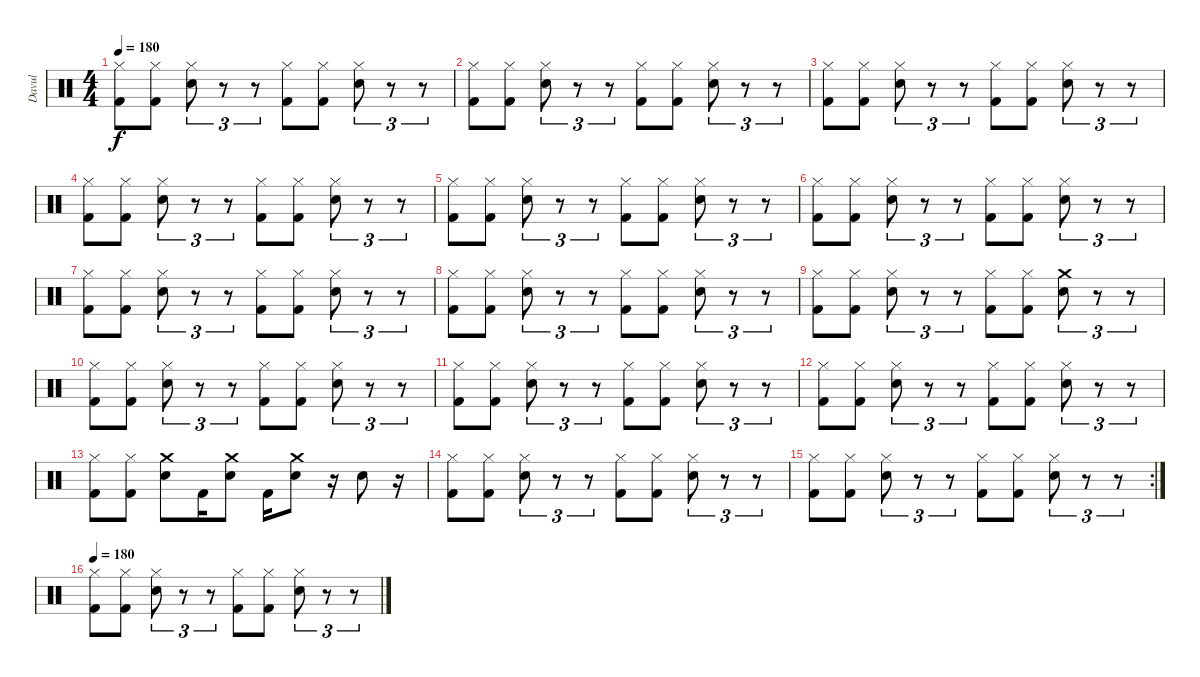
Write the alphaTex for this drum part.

\track ("Davul" "Davul") {instrument percussion}
\staff {score}
\articulation defaults
\ts (4 4)
\tempo 180
\clef neutral
\ks c
("Hi-Hat (closed)" "Kick (hit) 2").8{dy f} ("Hi-Hat (closed)" "Kick (hit) 2").8 ("Hi-Hat (closed)" "Snare (hit) 2").8{tu (3 2)} r.8{tu (3 2)} r.8{tu (3 2)} ("Hi-Hat (closed)" "Kick (hit) 2").8 ("Hi-Hat (closed)" "Kick (hit) 2").8 ("Hi-Hat (closed)" "Snare (hit) 2").8{tu (3 2)} r.8{tu (3 2)} r.8{tu (3 2)} |
("Hi-Hat (closed)" "Kick (hit) 2").8 ("Hi-Hat (closed)" "Kick (hit) 2").8 ("Hi-Hat (closed)" "Snare (hit) 2").8{tu (3 2)} r.8{tu (3 2)} r.8{tu (3 2)} ("Hi-Hat (closed)" "Kick (hit) 2").8 ("Hi-Hat (closed)" "Kick (hit) 2").8 ("Hi-Hat (closed)" "Snare (hit) 2").8{tu (3 2)} r.8{tu (3 2)} r.8{tu (3 2)} |
("Hi-Hat (closed)" "Kick (hit) 2").8 ("Hi-Hat (closed)" "Kick (hit) 2").8 ("Hi-Hat (closed)" "Snare (hit) 2").8{tu (3 2)} r.8{tu (3 2)} r.8{tu (3 2)} ("Hi-Hat (closed)" "Kick (hit) 2").8 ("Hi-Hat (closed)" "Kick (hit) 2").8 ("Hi-Hat (closed)" "Snare (hit) 2").8{tu (3 2)} r.8{tu (3 2)} r.8{tu (3 2)} |
("Hi-Hat (closed)" "Kick (hit) 2").8 ("Hi-Hat (closed)" "Kick (hit) 2").8 ("Hi-Hat (closed)" "Snare (hit) 2").8{tu (3 2)} r.8{tu (3 2)} r.8{tu (3 2)} ("Hi-Hat (closed)" "Kick (hit) 2").8 ("Hi-Hat (closed)" "Kick (hit) 2").8 ("Hi-Hat (closed)" "Snare (hit) 2").8{tu (3 2)} r.8{tu (3 2)} r.8{tu (3 2)} |
("Hi-Hat (closed)" "Kick (hit) 2").8 ("Hi-Hat (closed)" "Kick (hit) 2").8 ("Hi-Hat (closed)" "Snare (hit) 2").8{tu (3 2)} r.8{tu (3 2)} r.8{tu (3 2)} ("Hi-Hat (closed)" "Kick (hit) 2").8 ("Hi-Hat (closed)" "Kick (hit) 2").8 ("Hi-Hat (closed)" "Snare (hit) 2").8{tu (3 2)} r.8{tu (3 2)} r.8{tu (3 2)} |
("Hi-Hat (closed)" "Kick (hit) 2").8 ("Hi-Hat (closed)" "Kick (hit) 2").8 ("Hi-Hat (closed)" "Snare (hit) 2").8{tu (3 2)} r.8{tu (3 2)} r.8{tu (3 2)} ("Hi-Hat (closed)" "Kick (hit) 2").8 ("Hi-Hat (closed)" "Kick (hit) 2").8 ("Hi-Hat (closed)" "Snare (hit) 2").8{tu (3 2)} r.8{tu (3 2)} r.8{tu (3 2)} |
("Hi-Hat (closed)" "Kick (hit) 2").8 ("Hi-Hat (closed)" "Kick (hit) 2").8 ("Hi-Hat (closed)" "Snare (hit) 2").8{tu (3 2)} r.8{tu (3 2)} r.8{tu (3 2)} ("Hi-Hat (closed)" "Kick (hit) 2").8 ("Hi-Hat (closed)" "Kick (hit) 2").8 ("Hi-Hat (closed)" "Snare (hit) 2").8{tu (3 2)} r.8{tu (3 2)} r.8{tu (3 2)} |
("Hi-Hat (closed)" "Kick (hit) 2").8 ("Hi-Hat (closed)" "Kick (hit) 2").8 ("Hi-Hat (closed)" "Snare (hit) 2").8{tu (3 2)} r.8{tu (3 2)} r.8{tu (3 2)} ("Hi-Hat (closed)" "Kick (hit) 2").8 ("Hi-Hat (closed)" "Kick (hit) 2").8 ("Hi-Hat (closed)" "Snare (hit) 2").8{tu (3 2)} r.8{tu (3 2)} r.8{tu (3 2)} |
("Hi-Hat (closed)" "Kick (hit) 2").8 ("Hi-Hat (closed)" "Kick (hit) 2").8 ("Hi-Hat (closed)" "Snare (hit) 2").8{tu (3 2)} r.8{tu (3 2)} r.8{tu (3 2)} ("Hi-Hat (closed)" "Kick (hit) 2").8 ("Hi-Hat (closed)" "Kick (hit) 2").8 ("Crash medium (hit)" "Snare (hit) 2").8{tu (3 2)} r.8{tu (3 2)} r.8{tu (3 2)} |
("Hi-Hat (closed)" "Kick (hit) 2").8 ("Hi-Hat (closed)" "Kick (hit) 2").8 ("Hi-Hat (closed)" "Snare (hit) 2").8{tu (3 2)} r.8{tu (3 2)} r.8{tu (3 2)} ("Hi-Hat (closed)" "Kick (hit) 2").8 ("Hi-Hat (closed)" "Kick (hit) 2").8 ("Hi-Hat (closed)" "Snare (hit) 2").8{tu (3 2)} r.8{tu (3 2)} r.8{tu (3 2)} |
("Hi-Hat (closed)" "Kick (hit) 2").8 ("Hi-Hat (closed)" "Kick (hit) 2").8 ("Hi-Hat (closed)" "Snare (hit) 2").8{tu (3 2)} r.8{tu (3 2)} r.8{tu (3 2)} ("Hi-Hat (closed)" "Kick (hit) 2").8 ("Hi-Hat (closed)" "Kick (hit) 2").8 ("Hi-Hat (closed)" "Snare (hit) 2").8{tu (3 2)} r.8{tu (3 2)} r.8{tu (3 2)} |
("Hi-Hat (closed)" "Kick (hit) 2").8 ("Hi-Hat (closed)" "Kick (hit) 2").8 ("Hi-Hat (closed)" "Snare (hit) 2").8{tu (3 2)} r.8{tu (3 2)} r.8{tu (3 2)} ("Hi-Hat (closed)" "Kick (hit) 2").8 ("Hi-Hat (closed)" "Kick (hit) 2").8 ("Hi-Hat (closed)" "Snare (hit) 2").8{tu (3 2)} r.8{tu (3 2)} r.8{tu (3 2)} |
("Hi-Hat (closed)" "Kick (hit) 2").8 ("Hi-Hat (closed)" "Kick (hit) 2").8 ("Crash medium (hit)" "Snare (hit) 2").8 "Kick (hit) 2".16 ("Crash medium (hit)" "Snare (hit) 2").8 "Kick (hit) 2".16 ("Crash medium (hit)" "Snare (hit) 2").8 r.16 "Snare (hit) 2".8 r.16 |
("Hi-Hat (closed)" "Kick (hit) 2").8 ("Hi-Hat (closed)" "Kick (hit) 2").8 ("Hi-Hat (closed)" "Snare (hit) 2").8{tu (3 2)} r.8{tu (3 2)} r.8{tu (3 2)} ("Hi-Hat (closed)" "Kick (hit) 2").8 ("Hi-Hat (closed)" "Kick (hit) 2").8 ("Hi-Hat (closed)" "Snare (hit) 2").8{tu (3 2)} r.8{tu (3 2)} r.8{tu (3 2)} |
\rc 2
("Hi-Hat (closed)" "Kick (hit) 2").8 ("Hi-Hat (closed)" "Kick (hit) 2").8 ("Hi-Hat (closed)" "Snare (hit) 2").8{tu (3 2)} r.8{tu (3 2)} r.8{tu (3 2)} ("Hi-Hat (closed)" "Kick (hit) 2").8 ("Hi-Hat (closed)" "Kick (hit) 2").8 ("Hi-Hat (closed)" "Snare (hit) 2").8{tu (3 2)} r.8{tu (3 2)} r.8{tu (3 2)} |
\tempo 180
("Hi-Hat (closed)" "Kick (hit) 2").8 ("Hi-Hat (closed)" "Kick (hit) 2").8 ("Hi-Hat (closed)" "Snare (hit) 2").8{tu (3 2)} r.8{tu (3 2)} r.8{tu (3 2)} ("Hi-Hat (closed)" "Kick (hit) 2").8 ("Hi-Hat (closed)" "Kick (hit) 2").8 ("Hi-Hat (closed)" "Snare (hit) 2").8{tu (3 2)} r.8{tu (3 2)} r.8{tu (3 2)}
